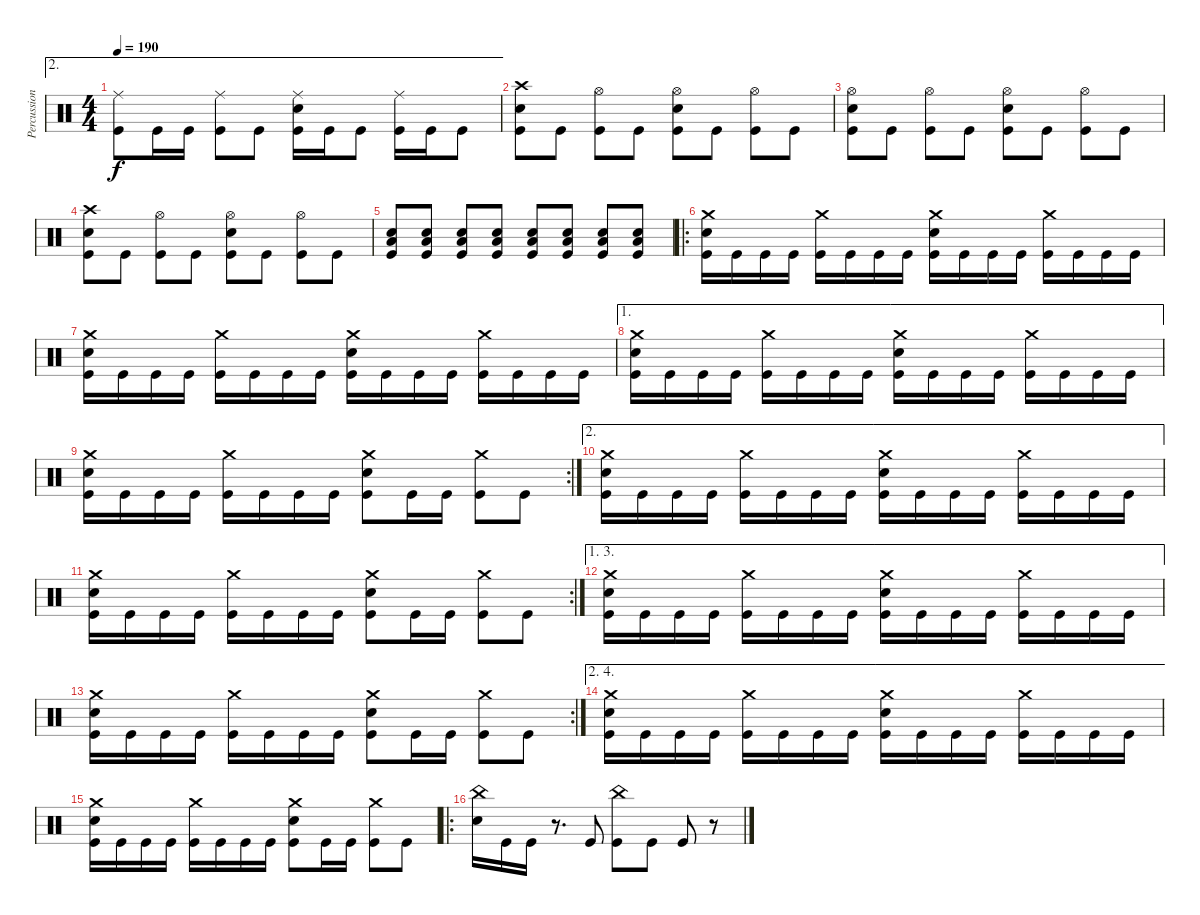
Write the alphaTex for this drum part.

\track ("Percussion" "Percussion") {instrument percussion}
\staff {score}
\articulation defaults
\ae 2
\ts (4 4)
\tempo 190
\clef neutral
\ks c
("Ride (middle)" "Kick (hit)").8{dy f} "Kick (hit)".16 "Kick (hit)".16 ("Ride (middle)" "Kick (hit)").8 "Kick (hit)".8 ("Ride (middle)" "Electric Snare (hit)" "Kick (hit)").16 "Kick (hit)".16 "Kick (hit)".8 ("Ride (middle)" "Kick (hit)").16 "Kick (hit)".16 "Kick (hit)".8 |
("Crash high (hit)" "Electric Snare (hit)" "Kick (hit)").8 "Kick (hit)".8 ("Hi-Hat (open)" "Kick (hit)").8 "Kick (hit)".8 ("Hi-Hat (open)" "Electric Snare (hit)" "Kick (hit)").8 "Kick (hit)".8 ("Hi-Hat (open)" "Kick (hit)").8 "Kick (hit)".8 |
("Hi-Hat (open)" "Electric Snare (hit)" "Kick (hit)").8 "Kick (hit)".8 ("Hi-Hat (open)" "Kick (hit)").8 "Kick (hit)".8 ("Hi-Hat (open)" "Electric Snare (hit)" "Kick (hit)").8 "Kick (hit)".8 ("Hi-Hat (open)" "Kick (hit)").8 "Kick (hit)".8 |
("Crash high (hit)" "Electric Snare (hit)" "Kick (hit)").8 "Kick (hit)".8 ("Hi-Hat (open)" "Kick (hit)").8 "Kick (hit)".8 ("Hi-Hat (open)" "Electric Snare (hit)" "Kick (hit)").8 "Kick (hit)".8 ("Hi-Hat (open)" "Kick (hit)").8 "Kick (hit)".8 |
("Low Tom (hit)" "Electric Snare (hit)" "Kick (hit)").8 ("Low Tom (hit)" "Electric Snare (hit)" "Kick (hit)").8 ("Low Tom (hit)" "Electric Snare (hit)" "Kick (hit)").8 ("Low Tom (hit)" "Electric Snare (hit)" "Kick (hit)").8 ("Low Tom (hit)" "Electric Snare (hit)" "Kick (hit)").8 ("Low Tom (hit)" "Electric Snare (hit)" "Kick (hit)").8 ("Low Tom (hit)" "Electric Snare (hit)" "Kick (hit)").8 ("Low Tom (hit)" "Electric Snare (hit)" "Kick (hit)").8 |
\ro
("Crash medium (hit)" "Electric Snare (hit)" "Kick (hit)").16 "Kick (hit)".16 "Kick (hit)".16 "Kick (hit)".16 ("Crash medium (hit)" "Kick (hit)").16 "Kick (hit)".16 "Kick (hit)".16 "Kick (hit)".16 ("Crash medium (hit)" "Electric Snare (hit)" "Kick (hit)").16 "Kick (hit)".16 "Kick (hit)".16 "Kick (hit)".16 ("Crash medium (hit)" "Kick (hit)").16 "Kick (hit)".16 "Kick (hit)".16 "Kick (hit)".16 |
("Crash medium (hit)" "Electric Snare (hit)" "Kick (hit)").16 "Kick (hit)".16 "Kick (hit)".16 "Kick (hit)".16 ("Crash medium (hit)" "Kick (hit)").16 "Kick (hit)".16 "Kick (hit)".16 "Kick (hit)".16 ("Crash medium (hit)" "Electric Snare (hit)" "Kick (hit)").16 "Kick (hit)".16 "Kick (hit)".16 "Kick (hit)".16 ("Crash medium (hit)" "Kick (hit)").16 "Kick (hit)".16 "Kick (hit)".16 "Kick (hit)".16 |
\ae 1
("Crash medium (hit)" "Electric Snare (hit)" "Kick (hit)").16 "Kick (hit)".16 "Kick (hit)".16 "Kick (hit)".16 ("Crash medium (hit)" "Kick (hit)").16 "Kick (hit)".16 "Kick (hit)".16 "Kick (hit)".16 ("Crash medium (hit)" "Electric Snare (hit)" "Kick (hit)").16 "Kick (hit)".16 "Kick (hit)".16 "Kick (hit)".16 ("Crash medium (hit)" "Kick (hit)").16 "Kick (hit)".16 "Kick (hit)".16 "Kick (hit)".16 |
\rc 2
("Crash medium (hit)" "Electric Snare (hit)" "Kick (hit)").16 "Kick (hit)".16 "Kick (hit)".16 "Kick (hit)".16 ("Crash medium (hit)" "Kick (hit)").16 "Kick (hit)".16 "Kick (hit)".16 "Kick (hit)".16 ("Crash medium (hit)" "Electric Snare (hit)" "Kick (hit)").8 "Kick (hit)".16 "Kick (hit)".16 ("Crash medium (hit)" "Kick (hit)").8 "Kick (hit)".8 |
\ae 2
("Crash medium (hit)" "Electric Snare (hit)" "Kick (hit)").16 "Kick (hit)".16 "Kick (hit)".16 "Kick (hit)".16 ("Crash medium (hit)" "Kick (hit)").16 "Kick (hit)".16 "Kick (hit)".16 "Kick (hit)".16 ("Crash medium (hit)" "Electric Snare (hit)" "Kick (hit)").16 "Kick (hit)".16 "Kick (hit)".16 "Kick (hit)".16 ("Crash medium (hit)" "Kick (hit)").16 "Kick (hit)".16 "Kick (hit)".16 "Kick (hit)".16 |
\rc 2
("Crash medium (hit)" "Electric Snare (hit)" "Kick (hit)").16 "Kick (hit)".16 "Kick (hit)".16 "Kick (hit)".16 ("Crash medium (hit)" "Kick (hit)").16 "Kick (hit)".16 "Kick (hit)".16 "Kick (hit)".16 ("Crash medium (hit)" "Electric Snare (hit)" "Kick (hit)").8 "Kick (hit)".16 "Kick (hit)".16 ("Crash medium (hit)" "Kick (hit)").8 "Kick (hit)".8 |
\ae (1 3)
("Crash medium (hit)" "Electric Snare (hit)" "Kick (hit)").16 "Kick (hit)".16 "Kick (hit)".16 "Kick (hit)".16 ("Crash medium (hit)" "Kick (hit)").16 "Kick (hit)".16 "Kick (hit)".16 "Kick (hit)".16 ("Crash medium (hit)" "Electric Snare (hit)" "Kick (hit)").16 "Kick (hit)".16 "Kick (hit)".16 "Kick (hit)".16 ("Crash medium (hit)" "Kick (hit)").16 "Kick (hit)".16 "Kick (hit)".16 "Kick (hit)".16 |
\rc 2
("Crash medium (hit)" "Electric Snare (hit)" "Kick (hit)").16 "Kick (hit)".16 "Kick (hit)".16 "Kick (hit)".16 ("Crash medium (hit)" "Kick (hit)").16 "Kick (hit)".16 "Kick (hit)".16 "Kick (hit)".16 ("Crash medium (hit)" "Electric Snare (hit)" "Kick (hit)").8 "Kick (hit)".16 "Kick (hit)".16 ("Crash medium (hit)" "Kick (hit)").8 "Kick (hit)".8 |
\ae (2 4)
("Crash medium (hit)" "Electric Snare (hit)" "Kick (hit)").16 "Kick (hit)".16 "Kick (hit)".16 "Kick (hit)".16 ("Crash medium (hit)" "Kick (hit)").16 "Kick (hit)".16 "Kick (hit)".16 "Kick (hit)".16 ("Crash medium (hit)" "Electric Snare (hit)" "Kick (hit)").16 "Kick (hit)".16 "Kick (hit)".16 "Kick (hit)".16 ("Crash medium (hit)" "Kick (hit)").16 "Kick (hit)".16 "Kick (hit)".16 "Kick (hit)".16 |
("Crash medium (hit)" "Electric Snare (hit)" "Kick (hit)").16 "Kick (hit)".16 "Kick (hit)".16 "Kick (hit)".16 ("Crash medium (hit)" "Kick (hit)").16 "Kick (hit)".16 "Kick (hit)".16 "Kick (hit)".16 ("Crash medium (hit)" "Electric Snare (hit)" "Kick (hit)").8 "Kick (hit)".16 "Kick (hit)".16 ("Crash medium (hit)" "Kick (hit)").8 "Kick (hit)".8 |
\ro
("China (hit)" "Electric Snare (hit)").16 "Kick (hit)".16 "Kick (hit)".16 r.8{d} "Kick (hit)".8 ("China (hit)" "Kick (hit)").8 "Kick (hit)".8 "Kick (hit)".8 r.8
